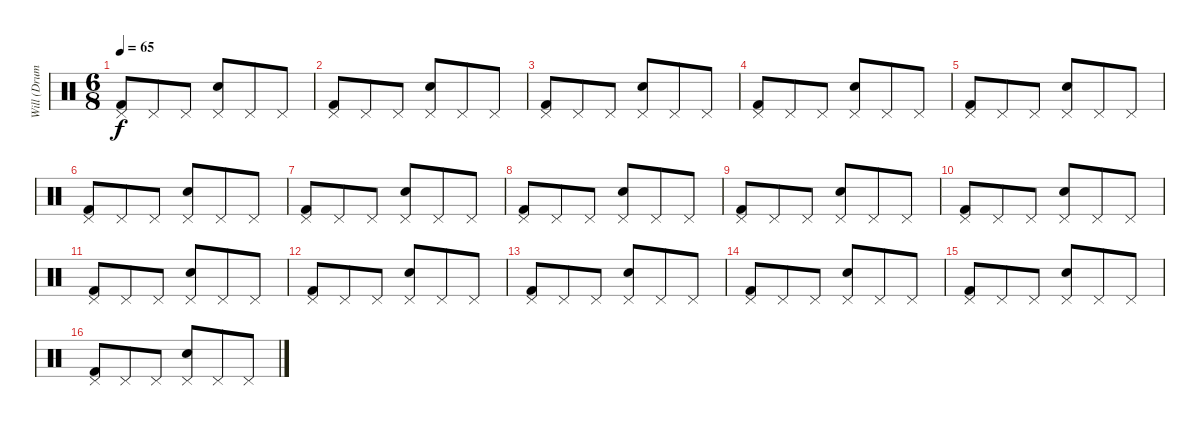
\track ("Will (Drums)" "Will (Drum") {instrument percussion}
\staff {score}
\articulation defaults
\ts (6 8)
\tempo 65
\clef neutral
\ks c
("Pedal Hi-Hat (hit)" "Kick (hit) 2").8{dy f} "Pedal Hi-Hat (hit)".8 "Pedal Hi-Hat (hit)".8 ("Pedal Hi-Hat (hit)" "Snare (hit) 2").8 "Pedal Hi-Hat (hit)".8 "Pedal Hi-Hat (hit)".8 |
("Pedal Hi-Hat (hit)" "Kick (hit) 2").8 "Pedal Hi-Hat (hit)".8 "Pedal Hi-Hat (hit)".8 ("Pedal Hi-Hat (hit)" "Snare (hit) 2").8 "Pedal Hi-Hat (hit)".8 "Pedal Hi-Hat (hit)".8 |
("Pedal Hi-Hat (hit)" "Kick (hit) 2").8 "Pedal Hi-Hat (hit)".8 "Pedal Hi-Hat (hit)".8 ("Pedal Hi-Hat (hit)" "Snare (hit) 2").8 "Pedal Hi-Hat (hit)".8 "Pedal Hi-Hat (hit)".8 |
("Pedal Hi-Hat (hit)" "Kick (hit) 2").8 "Pedal Hi-Hat (hit)".8 "Pedal Hi-Hat (hit)".8 ("Pedal Hi-Hat (hit)" "Snare (hit) 2").8 "Pedal Hi-Hat (hit)".8 "Pedal Hi-Hat (hit)".8 |
("Pedal Hi-Hat (hit)" "Kick (hit) 2").8 "Pedal Hi-Hat (hit)".8 "Pedal Hi-Hat (hit)".8 ("Pedal Hi-Hat (hit)" "Snare (hit) 2").8 "Pedal Hi-Hat (hit)".8 "Pedal Hi-Hat (hit)".8 |
("Pedal Hi-Hat (hit)" "Kick (hit) 2").8 "Pedal Hi-Hat (hit)".8 "Pedal Hi-Hat (hit)".8 ("Pedal Hi-Hat (hit)" "Snare (hit) 2").8 "Pedal Hi-Hat (hit)".8 "Pedal Hi-Hat (hit)".8 |
("Pedal Hi-Hat (hit)" "Kick (hit) 2").8 "Pedal Hi-Hat (hit)".8 "Pedal Hi-Hat (hit)".8 ("Pedal Hi-Hat (hit)" "Snare (hit) 2").8 "Pedal Hi-Hat (hit)".8 "Pedal Hi-Hat (hit)".8 |
("Pedal Hi-Hat (hit)" "Kick (hit) 2").8 "Pedal Hi-Hat (hit)".8 "Pedal Hi-Hat (hit)".8 ("Pedal Hi-Hat (hit)" "Snare (hit) 2").8 "Pedal Hi-Hat (hit)".8 "Pedal Hi-Hat (hit)".8 |
("Pedal Hi-Hat (hit)" "Kick (hit) 2").8 "Pedal Hi-Hat (hit)".8 "Pedal Hi-Hat (hit)".8 ("Pedal Hi-Hat (hit)" "Snare (hit) 2").8 "Pedal Hi-Hat (hit)".8 "Pedal Hi-Hat (hit)".8 |
("Pedal Hi-Hat (hit)" "Kick (hit) 2").8 "Pedal Hi-Hat (hit)".8 "Pedal Hi-Hat (hit)".8 ("Pedal Hi-Hat (hit)" "Snare (hit) 2").8 "Pedal Hi-Hat (hit)".8 "Pedal Hi-Hat (hit)".8 |
("Pedal Hi-Hat (hit)" "Kick (hit) 2").8 "Pedal Hi-Hat (hit)".8 "Pedal Hi-Hat (hit)".8 ("Pedal Hi-Hat (hit)" "Snare (hit) 2").8 "Pedal Hi-Hat (hit)".8 "Pedal Hi-Hat (hit)".8 |
("Pedal Hi-Hat (hit)" "Kick (hit) 2").8 "Pedal Hi-Hat (hit)".8 "Pedal Hi-Hat (hit)".8 ("Pedal Hi-Hat (hit)" "Snare (hit) 2").8 "Pedal Hi-Hat (hit)".8 "Pedal Hi-Hat (hit)".8 |
("Pedal Hi-Hat (hit)" "Kick (hit) 2").8 "Pedal Hi-Hat (hit)".8 "Pedal Hi-Hat (hit)".8 ("Pedal Hi-Hat (hit)" "Snare (hit) 2").8 "Pedal Hi-Hat (hit)".8 "Pedal Hi-Hat (hit)".8 |
("Pedal Hi-Hat (hit)" "Kick (hit) 2").8 "Pedal Hi-Hat (hit)".8 "Pedal Hi-Hat (hit)".8 ("Pedal Hi-Hat (hit)" "Snare (hit) 2").8 "Pedal Hi-Hat (hit)".8 "Pedal Hi-Hat (hit)".8 |
("Pedal Hi-Hat (hit)" "Kick (hit) 2").8 "Pedal Hi-Hat (hit)".8 "Pedal Hi-Hat (hit)".8 ("Pedal Hi-Hat (hit)" "Snare (hit) 2").8 "Pedal Hi-Hat (hit)".8 "Pedal Hi-Hat (hit)".8 |
("Pedal Hi-Hat (hit)" "Kick (hit) 2").8 "Pedal Hi-Hat (hit)".8 "Pedal Hi-Hat (hit)".8 ("Pedal Hi-Hat (hit)" "Snare (hit) 2").8 "Pedal Hi-Hat (hit)".8 "Pedal Hi-Hat (hit)".8
